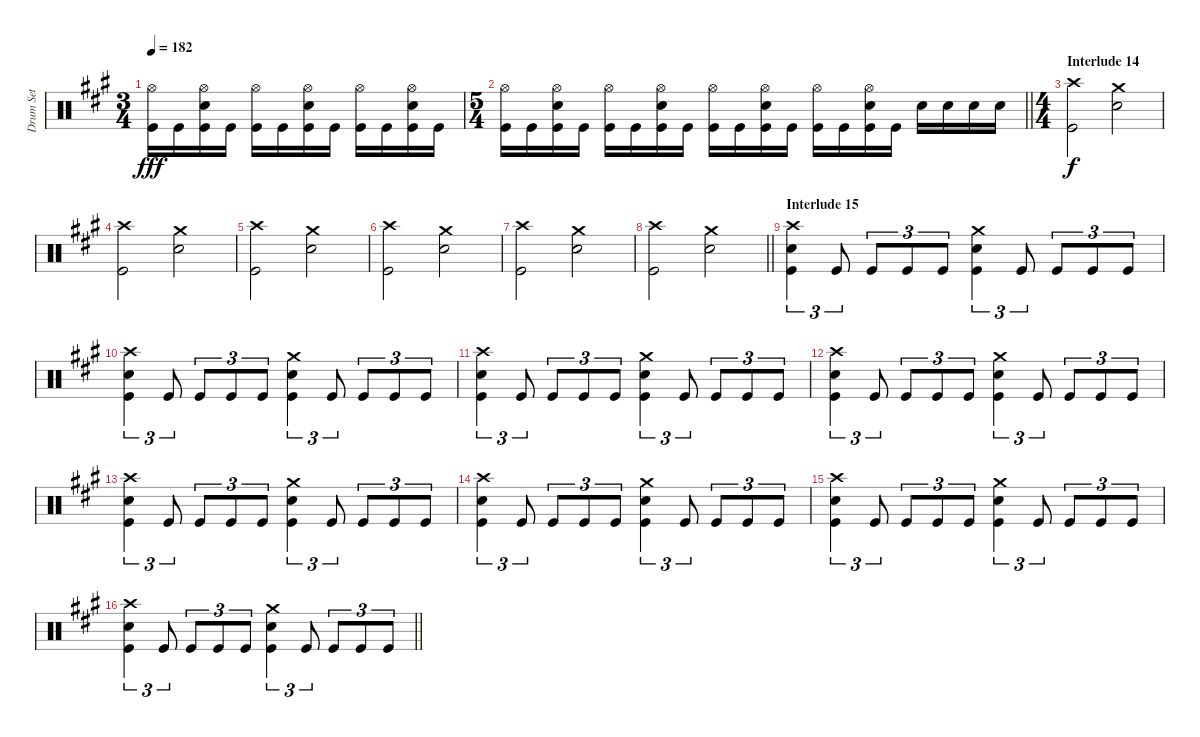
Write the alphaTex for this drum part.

\track ("Drum Set" "Drum Set") {instrument percussion}
\staff {score}
\articulation defaults
\ts (3 4)
\tempo 182
\clef neutral
\ks a
("Hi-Hat (open)" "Kick (hit)").16{dy fff} "Kick (hit)".16 ("Electric Snare (hit)" "Hi-Hat (open)" "Kick (hit)").16 "Kick (hit)".16 ("Hi-Hat (open)" "Kick (hit)").16 "Kick (hit)".16 ("Electric Snare (hit)" "Hi-Hat (open)" "Kick (hit)").16 "Kick (hit)".16 ("Hi-Hat (open)" "Kick (hit)").16 "Kick (hit)".16 ("Electric Snare (hit)" "Hi-Hat (open)" "Kick (hit)").16 "Kick (hit)".16 |
\ts (5 4)
\barLineRight lightlight
("Hi-Hat (open)" "Kick (hit)").16 "Kick (hit)".16 ("Electric Snare (hit)" "Hi-Hat (open)" "Kick (hit)").16 "Kick (hit)".16 ("Hi-Hat (open)" "Kick (hit)").16 "Kick (hit)".16 ("Electric Snare (hit)" "Hi-Hat (open)" "Kick (hit)").16 "Kick (hit)".16 ("Hi-Hat (open)" "Kick (hit)").16 "Kick (hit)".16 ("Electric Snare (hit)" "Hi-Hat (open)" "Kick (hit)").16 "Kick (hit)".16 ("Hi-Hat (open)" "Kick (hit)").16 "Kick (hit)".16 ("Electric Snare (hit)" "Hi-Hat (open)" "Kick (hit)").16 "Kick (hit)".16 "Electric Snare (hit)".16 "Electric Snare (hit)".16 "Electric Snare (hit)".16 "Electric Snare (hit)".16 |
\ts (4 4)
\section ("" "Interlude 14")
("Crash high (hit)" "Kick (hit)").2{dy f} ("Crash medium (hit)" "Electric Snare (hit)").2 |
("Crash high (hit)" "Kick (hit)").2 ("Crash medium (hit)" "Electric Snare (hit)").2 |
("Crash high (hit)" "Kick (hit)").2 ("Crash medium (hit)" "Electric Snare (hit)").2 |
("Crash high (hit)" "Kick (hit)").2 ("Crash medium (hit)" "Electric Snare (hit)").2 |
("Crash high (hit)" "Kick (hit)").2 ("Crash medium (hit)" "Electric Snare (hit)").2 |
\barLineRight lightlight
("Crash high (hit)" "Kick (hit)").2 ("Crash medium (hit)" "Electric Snare (hit)").2 |
\section ("" "Interlude 15")
("Electric Snare (hit)" "Crash high (hit)" "Kick (hit)").4{tu (3 2)} "Kick (hit)".8{tu (3 2)} "Kick (hit)".8{tu (3 2)} "Kick (hit)".8{tu (3 2)} "Kick (hit)".8{tu (3 2)} ("Electric Snare (hit)" "Crash medium (hit)" "Kick (hit)").4{tu (3 2)} "Kick (hit)".8{tu (3 2)} "Kick (hit)".8{tu (3 2)} "Kick (hit)".8{tu (3 2)} "Kick (hit)".8{tu (3 2)} |
("Electric Snare (hit)" "Crash high (hit)" "Kick (hit)").4{tu (3 2)} "Kick (hit)".8{tu (3 2)} "Kick (hit)".8{tu (3 2)} "Kick (hit)".8{tu (3 2)} "Kick (hit)".8{tu (3 2)} ("Electric Snare (hit)" "Crash medium (hit)" "Kick (hit)").4{tu (3 2)} "Kick (hit)".8{tu (3 2)} "Kick (hit)".8{tu (3 2)} "Kick (hit)".8{tu (3 2)} "Kick (hit)".8{tu (3 2)} |
("Electric Snare (hit)" "Crash high (hit)" "Kick (hit)").4{tu (3 2)} "Kick (hit)".8{tu (3 2)} "Kick (hit)".8{tu (3 2)} "Kick (hit)".8{tu (3 2)} "Kick (hit)".8{tu (3 2)} ("Electric Snare (hit)" "Crash medium (hit)" "Kick (hit)").4{tu (3 2)} "Kick (hit)".8{tu (3 2)} "Kick (hit)".8{tu (3 2)} "Kick (hit)".8{tu (3 2)} "Kick (hit)".8{tu (3 2)} |
("Electric Snare (hit)" "Crash high (hit)" "Kick (hit)").4{tu (3 2)} "Kick (hit)".8{tu (3 2)} "Kick (hit)".8{tu (3 2)} "Kick (hit)".8{tu (3 2)} "Kick (hit)".8{tu (3 2)} ("Electric Snare (hit)" "Crash medium (hit)" "Kick (hit)").4{tu (3 2)} "Kick (hit)".8{tu (3 2)} "Kick (hit)".8{tu (3 2)} "Kick (hit)".8{tu (3 2)} "Kick (hit)".8{tu (3 2)} |
("Electric Snare (hit)" "Crash high (hit)" "Kick (hit)").4{tu (3 2)} "Kick (hit)".8{tu (3 2)} "Kick (hit)".8{tu (3 2)} "Kick (hit)".8{tu (3 2)} "Kick (hit)".8{tu (3 2)} ("Electric Snare (hit)" "Crash medium (hit)" "Kick (hit)").4{tu (3 2)} "Kick (hit)".8{tu (3 2)} "Kick (hit)".8{tu (3 2)} "Kick (hit)".8{tu (3 2)} "Kick (hit)".8{tu (3 2)} |
("Electric Snare (hit)" "Crash high (hit)" "Kick (hit)").4{tu (3 2)} "Kick (hit)".8{tu (3 2)} "Kick (hit)".8{tu (3 2)} "Kick (hit)".8{tu (3 2)} "Kick (hit)".8{tu (3 2)} ("Electric Snare (hit)" "Crash medium (hit)" "Kick (hit)").4{tu (3 2)} "Kick (hit)".8{tu (3 2)} "Kick (hit)".8{tu (3 2)} "Kick (hit)".8{tu (3 2)} "Kick (hit)".8{tu (3 2)} |
("Electric Snare (hit)" "Crash high (hit)" "Kick (hit)").4{tu (3 2)} "Kick (hit)".8{tu (3 2)} "Kick (hit)".8{tu (3 2)} "Kick (hit)".8{tu (3 2)} "Kick (hit)".8{tu (3 2)} ("Electric Snare (hit)" "Crash medium (hit)" "Kick (hit)").4{tu (3 2)} "Kick (hit)".8{tu (3 2)} "Kick (hit)".8{tu (3 2)} "Kick (hit)".8{tu (3 2)} "Kick (hit)".8{tu (3 2)} |
\barLineRight lightlight
("Electric Snare (hit)" "Crash high (hit)" "Kick (hit)").4{tu (3 2)} "Kick (hit)".8{tu (3 2)} "Kick (hit)".8{tu (3 2)} "Kick (hit)".8{tu (3 2)} "Kick (hit)".8{tu (3 2)} ("Electric Snare (hit)" "Crash medium (hit)" "Kick (hit)").4{tu (3 2)} "Kick (hit)".8{tu (3 2)} "Kick (hit)".8{tu (3 2)} "Kick (hit)".8{tu (3 2)} "Kick (hit)".8{tu (3 2)}
